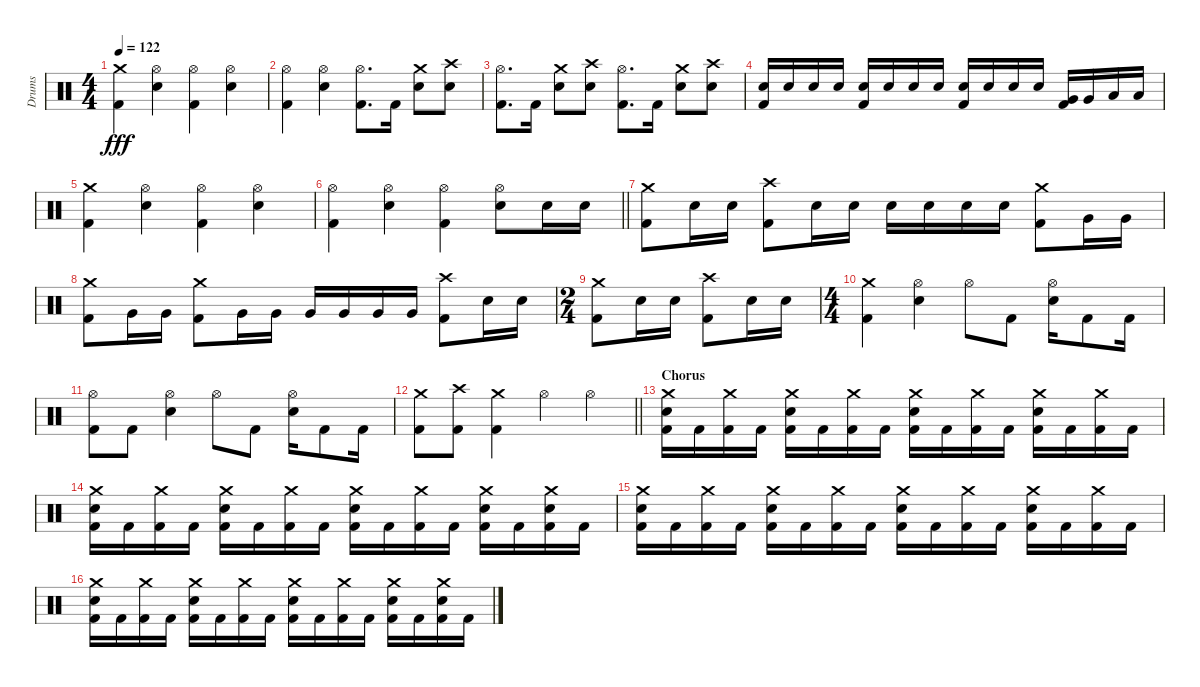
\track ("Drums" "Drums") {instrument percussion}
\staff {score}
\articulation defaults
\ts (4 4)
\tempo 122
\clef neutral
\ks c
("Crash medium (hit)" "Kick (hit) 2").4{dy fff} ("Hi-Hat (open)" "Electric Snare (hit)").4 ("Hi-Hat (open)" "Kick (hit) 2").4 ("Hi-Hat (open)" "Electric Snare (hit)").4 |
("Hi-Hat (open)" "Kick (hit) 2").4 ("Hi-Hat (open)" "Electric Snare (hit)").4 ("Hi-Hat (open)" "Kick (hit) 2").8{d} "Kick (hit) 2".16 ("Crash medium (hit)" "Electric Snare (hit)").8 ("Crash high (hit)" "Electric Snare (hit)").8 |
("Hi-Hat (open)" "Kick (hit) 2").8{d} "Kick (hit) 2".16 ("Crash medium (hit)" "Electric Snare (hit)").8 ("Crash high (hit)" "Electric Snare (hit)").8 ("Hi-Hat (open)" "Kick (hit) 2").8{d} "Kick (hit) 2".16 ("Crash medium (hit)" "Electric Snare (hit)").8 ("Crash high (hit)" "Electric Snare (hit)").8 |
("Electric Snare (hit)" "Kick (hit) 2").16 "Electric Snare (hit)".16 "Electric Snare (hit)".16 "Electric Snare (hit)".16 ("Electric Snare (hit)" "Kick (hit) 2").16 "Electric Snare (hit)".16 "Electric Snare (hit)".16 "Electric Snare (hit)".16 ("Electric Snare (hit)" "Kick (hit) 2").16 "Electric Snare (hit)".16 "Electric Snare (hit)".16 "Electric Snare (hit)".16 ("Very Low Tom (hit)" "Kick (hit) 2").16 "Very Low Tom (hit)".16 "Low Tom (hit)".16 "Low Tom (hit)".16 |
("Crash medium (hit)" "Kick (hit) 2").4 ("Hi-Hat (open)" "Electric Snare (hit)").4 ("Hi-Hat (open)" "Kick (hit) 2").4 ("Hi-Hat (open)" "Electric Snare (hit)").4 |
\barLineRight lightlight
("Hi-Hat (open)" "Kick (hit) 2").4 ("Hi-Hat (open)" "Electric Snare (hit)").4 ("Hi-Hat (open)" "Kick (hit) 2").4 ("Hi-Hat (open)" "Electric Snare (hit)").8 "Electric Snare (hit)".16 "Electric Snare (hit)".16 |
("Crash medium (hit)" "Kick (hit) 2").8 "Electric Snare (hit)".16 "Electric Snare (hit)".16 ("Crash high (hit)" "Kick (hit) 2").8 "Electric Snare (hit)".16 "Electric Snare (hit)".16 "Electric Snare (hit)".16 "Electric Snare (hit)".16 "Electric Snare (hit)".16 "Electric Snare (hit)".16 ("Crash medium (hit)" "Kick (hit) 2").8 "Very Low Tom (hit)".16 "Very Low Tom (hit)".16 |
("Crash medium (hit)" "Kick (hit) 2").8 "Very Low Tom (hit)".16 "Very Low Tom (hit)".16 ("Crash medium (hit)" "Kick (hit) 2").8 "Very Low Tom (hit)".16 "Very Low Tom (hit)".16 "Very Low Tom (hit)".16 "Very Low Tom (hit)".16 "Very Low Tom (hit)".16 "Very Low Tom (hit)".16 ("Crash high (hit)" "Kick (hit) 2").8 "Electric Snare (hit)".16 "Electric Snare (hit)".16 |
\ts (2 4)
("Crash medium (hit)" "Kick (hit) 2").8 "Electric Snare (hit)".16 "Electric Snare (hit)".16 ("Crash high (hit)" "Kick (hit) 2").8 "Electric Snare (hit)".16 "Electric Snare (hit)".16 |
\ts (4 4)
("Crash medium (hit)" "Kick (hit) 2").4 ("Hi-Hat (open)" "Electric Snare (hit)").4 "Hi-Hat (open)".8 "Kick (hit) 2".8 ("Hi-Hat (open)" "Electric Snare (hit)").16 "Kick (hit) 2".8 "Kick (hit) 2".16 |
("Hi-Hat (open)" "Kick (hit) 2").8 "Kick (hit) 2".8 ("Hi-Hat (open)" "Electric Snare (hit)").4 "Hi-Hat (open)".8 "Kick (hit) 2".8 ("Hi-Hat (open)" "Electric Snare (hit)").16 "Kick (hit) 2".8 "Kick (hit) 2".16 |
\barLineRight lightlight
("Crash medium (hit)" "Kick (hit) 2").8 ("Crash high (hit)" "Kick (hit) 2").8 ("Crash medium (hit)" "Kick (hit) 2").4 "Hi-Hat (open)".4 "Hi-Hat (open)".4 |
\section ("" "Chorus")
("Crash medium (hit)" "Electric Snare (hit)" "Kick (hit) 2").16 "Kick (hit) 2".16 ("Crash medium (hit)" "Kick (hit) 2").16 "Kick (hit) 2".16 ("Crash medium (hit)" "Electric Snare (hit)" "Kick (hit) 2").16 "Kick (hit) 2".16 ("Crash medium (hit)" "Kick (hit) 2").16 "Kick (hit) 2".16 ("Crash medium (hit)" "Electric Snare (hit)" "Kick (hit) 2").16 "Kick (hit) 2".16 ("Crash medium (hit)" "Kick (hit) 2").16 "Kick (hit) 2".16 ("Crash medium (hit)" "Electric Snare (hit)" "Kick (hit) 2").16 "Kick (hit) 2".16 ("Crash medium (hit)" "Kick (hit) 2").16 "Kick (hit) 2".16 |
("Crash medium (hit)" "Electric Snare (hit)" "Kick (hit) 2").16 "Kick (hit) 2".16 ("Crash medium (hit)" "Kick (hit) 2").16 "Kick (hit) 2".16 ("Crash medium (hit)" "Electric Snare (hit)" "Kick (hit) 2").16 "Kick (hit) 2".16 ("Crash medium (hit)" "Kick (hit) 2").16 "Kick (hit) 2".16 ("Crash medium (hit)" "Electric Snare (hit)" "Kick (hit) 2").16 "Kick (hit) 2".16 ("Crash medium (hit)" "Kick (hit) 2").16 "Kick (hit) 2".16 ("Crash medium (hit)" "Electric Snare (hit)" "Kick (hit) 2").16 "Kick (hit) 2".16 ("Crash medium (hit)" "Electric Snare (hit)" "Kick (hit) 2").16 "Kick (hit) 2".16 |
("Crash medium (hit)" "Electric Snare (hit)" "Kick (hit) 2").16 "Kick (hit) 2".16 ("Crash medium (hit)" "Kick (hit) 2").16 "Kick (hit) 2".16 ("Crash medium (hit)" "Electric Snare (hit)" "Kick (hit) 2").16 "Kick (hit) 2".16 ("Crash medium (hit)" "Kick (hit) 2").16 "Kick (hit) 2".16 ("Crash medium (hit)" "Electric Snare (hit)" "Kick (hit) 2").16 "Kick (hit) 2".16 ("Crash medium (hit)" "Kick (hit) 2").16 "Kick (hit) 2".16 ("Crash medium (hit)" "Electric Snare (hit)" "Kick (hit) 2").16 "Kick (hit) 2".16 ("Crash medium (hit)" "Kick (hit) 2").16 "Kick (hit) 2".16 |
("Crash medium (hit)" "Electric Snare (hit)" "Kick (hit) 2").16 "Kick (hit) 2".16 ("Crash medium (hit)" "Kick (hit) 2").16 "Kick (hit) 2".16 ("Crash medium (hit)" "Electric Snare (hit)" "Kick (hit) 2").16 "Kick (hit) 2".16 ("Crash medium (hit)" "Kick (hit) 2").16 "Kick (hit) 2".16 ("Crash medium (hit)" "Electric Snare (hit)" "Kick (hit) 2").16 "Kick (hit) 2".16 ("Crash medium (hit)" "Kick (hit) 2").16 "Kick (hit) 2".16 ("Crash medium (hit)" "Electric Snare (hit)" "Kick (hit) 2").16 "Kick (hit) 2".16 ("Crash medium (hit)" "Electric Snare (hit)" "Kick (hit) 2").16 "Kick (hit) 2".16
